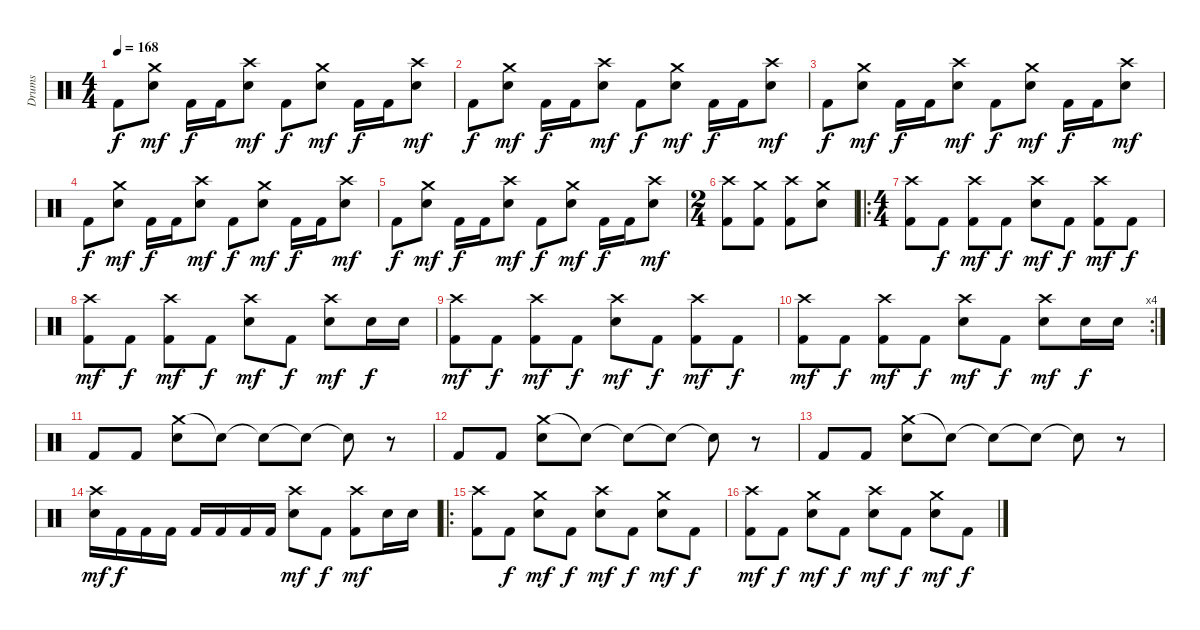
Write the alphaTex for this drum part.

\track ("Drums" "Drums") {instrument percussion}
\staff {score}
\articulation defaults
\ts (4 4)
\tempo 168
\clef neutral
\ks c "Kick (hit) 2".8{dy f}
("Crash medium (hit)" "Snare (hit) 2").8{dy mf} "Kick (hit) 2".16{dy f} "Kick (hit) 2".16 ("Crash high (hit)" "Snare (hit) 2").8{dy mf} "Kick (hit) 2".8{dy f} ("Crash medium (hit)" "Snare (hit) 2").8{dy mf} "Kick (hit) 2".16{dy f} "Kick (hit) 2".16 ("Crash high (hit)" "Snare (hit) 2").8{dy mf} |
"Kick (hit) 2".8{dy f} ("Crash medium (hit)" "Snare (hit) 2").8{dy mf} "Kick (hit) 2".16{dy f} "Kick (hit) 2".16 ("Crash high (hit)" "Snare (hit) 2").8{dy mf} "Kick (hit) 2".8{dy f} ("Crash medium (hit)" "Snare (hit) 2").8{dy mf} "Kick (hit) 2".16{dy f} "Kick (hit) 2".16 ("Crash high (hit)" "Snare (hit) 2").8{dy mf} |
"Kick (hit) 2".8{dy f} ("Crash medium (hit)" "Snare (hit) 2").8{dy mf} "Kick (hit) 2".16{dy f} "Kick (hit) 2".16 ("Crash high (hit)" "Snare (hit) 2").8{dy mf} "Kick (hit) 2".8{dy f} ("Crash medium (hit)" "Snare (hit) 2").8{dy mf} "Kick (hit) 2".16{dy f} "Kick (hit) 2".16 ("Crash high (hit)" "Snare (hit) 2").8{dy mf} |
"Kick (hit) 2".8{dy f} ("Crash medium (hit)" "Snare (hit) 2").8{dy mf} "Kick (hit) 2".16{dy f} "Kick (hit) 2".16 ("Crash high (hit)" "Snare (hit) 2").8{dy mf} "Kick (hit) 2".8{dy f} ("Crash medium (hit)" "Snare (hit) 2").8{dy mf} "Kick (hit) 2".16{dy f} "Kick (hit) 2".16 ("Crash high (hit)" "Snare (hit) 2").8{dy mf} |
"Kick (hit) 2".8{dy f} ("Crash medium (hit)" "Snare (hit) 2").8{dy mf} "Kick (hit) 2".16{dy f} "Kick (hit) 2".16 ("Crash high (hit)" "Snare (hit) 2").8{dy mf} "Kick (hit) 2".8{dy f} ("Crash medium (hit)" "Snare (hit) 2").8{dy mf} "Kick (hit) 2".16{dy f} "Kick (hit) 2".16 ("Crash high (hit)" "Snare (hit) 2").8{dy mf} |
\ts (2 4)
("Crash high (hit)" "Kick (hit) 2").8 ("Crash medium (hit)" "Kick (hit) 2").8 ("Crash high (hit)" "Kick (hit) 2").8 ("Crash medium (hit)" "Snare (hit) 2").8 |
\ro
\ts (4 4)
("Crash high (hit)" "Kick (hit) 2").8 "Kick (hit) 2".8{dy f} ("Crash high (hit)" "Kick (hit) 2").8{dy mf} "Kick (hit) 2".8{dy f} ("Crash high (hit)" "Snare (hit) 2").8{dy mf} "Kick (hit) 2".8{dy f} ("Crash high (hit)" "Kick (hit) 2").8{dy mf} "Kick (hit) 2".8{dy f} |
("Crash high (hit)" "Kick (hit) 2").8{dy mf} "Kick (hit) 2".8{dy f} ("Crash high (hit)" "Kick (hit) 2").8{dy mf} "Kick (hit) 2".8{dy f} ("Crash high (hit)" "Snare (hit) 2").8{dy mf} "Kick (hit) 2".8{dy f} ("Crash high (hit)" "Snare (hit) 2").8{dy mf} "Snare (hit) 2".16{dy f} "Snare (hit) 2".16 |
("Crash high (hit)" "Kick (hit) 2").8{dy mf} "Kick (hit) 2".8{dy f} ("Crash high (hit)" "Kick (hit) 2").8{dy mf} "Kick (hit) 2".8{dy f} ("Crash high (hit)" "Snare (hit) 2").8{dy mf} "Kick (hit) 2".8{dy f} ("Crash high (hit)" "Kick (hit) 2").8{dy mf} "Kick (hit) 2".8{dy f} |
\rc 4
("Crash high (hit)" "Kick (hit) 2").8{dy mf} "Kick (hit) 2".8{dy f} ("Crash high (hit)" "Kick (hit) 2").8{dy mf} "Kick (hit) 2".8{dy f} ("Crash high (hit)" "Snare (hit) 2").8{dy mf} "Kick (hit) 2".8{dy f} ("Crash high (hit)" "Snare (hit) 2").8{dy mf} "Snare (hit) 2".16{dy f} "Snare (hit) 2".16 |
"Kick (hit) 2".8 "Kick (hit) 2".8 ("Crash medium (hit)" "Snare (hit) 2").8 "Snare (hit)"{t}.8 "Snare (hit)"{t}.8 "Snare (hit)"{t}.8 "Snare (hit)"{t}.8 r.8 |
"Kick (hit) 2".8 "Kick (hit) 2".8 ("Crash medium (hit)" "Snare (hit) 2").8 "Snare (hit)"{t}.8 "Snare (hit)"{t}.8 "Snare (hit)"{t}.8 "Snare (hit)"{t}.8 r.8 |
"Kick (hit) 2".8 "Kick (hit) 2".8 ("Crash medium (hit)" "Snare (hit) 2").8 "Snare (hit)"{t}.8 "Snare (hit)"{t}.8 "Snare (hit)"{t}.8 "Snare (hit)"{t}.8 r.8 |
("Crash high (hit)" "Snare (hit) 2").16{dy mf} "Kick (hit) 2".16{dy f} "Kick (hit) 2".16 "Kick (hit) 2".16 "Kick (hit) 2".16 "Kick (hit) 2".16 "Kick (hit) 2".16 "Kick (hit) 2".16 ("Crash high (hit)" "Snare (hit) 2").8{dy mf} "Kick (hit) 2".8{dy f} ("Crash high (hit)" "Kick (hit) 2").8{dy mf} "Snare (hit) 2".16 "Snare (hit) 2".16 |
\ro
("Crash high (hit)" "Kick (hit) 2").8 "Kick (hit) 2".8{dy f} ("Crash medium (hit)" "Snare (hit) 2").8{dy mf} "Kick (hit) 2".8{dy f} ("Crash high (hit)" "Snare (hit) 2").8{dy mf} "Kick (hit) 2".8{dy f} ("Crash medium (hit)" "Snare (hit) 2").8{dy mf} "Kick (hit) 2".8{dy f} |
("Crash high (hit)" "Kick (hit) 2").8{dy mf} "Kick (hit) 2".8{dy f} ("Crash medium (hit)" "Snare (hit) 2").8{dy mf} "Kick (hit) 2".8{dy f} ("Crash high (hit)" "Snare (hit) 2").8{dy mf} "Kick (hit) 2".8{dy f} ("Crash medium (hit)" "Snare (hit) 2").8{dy mf} "Kick (hit) 2".8{dy f}
